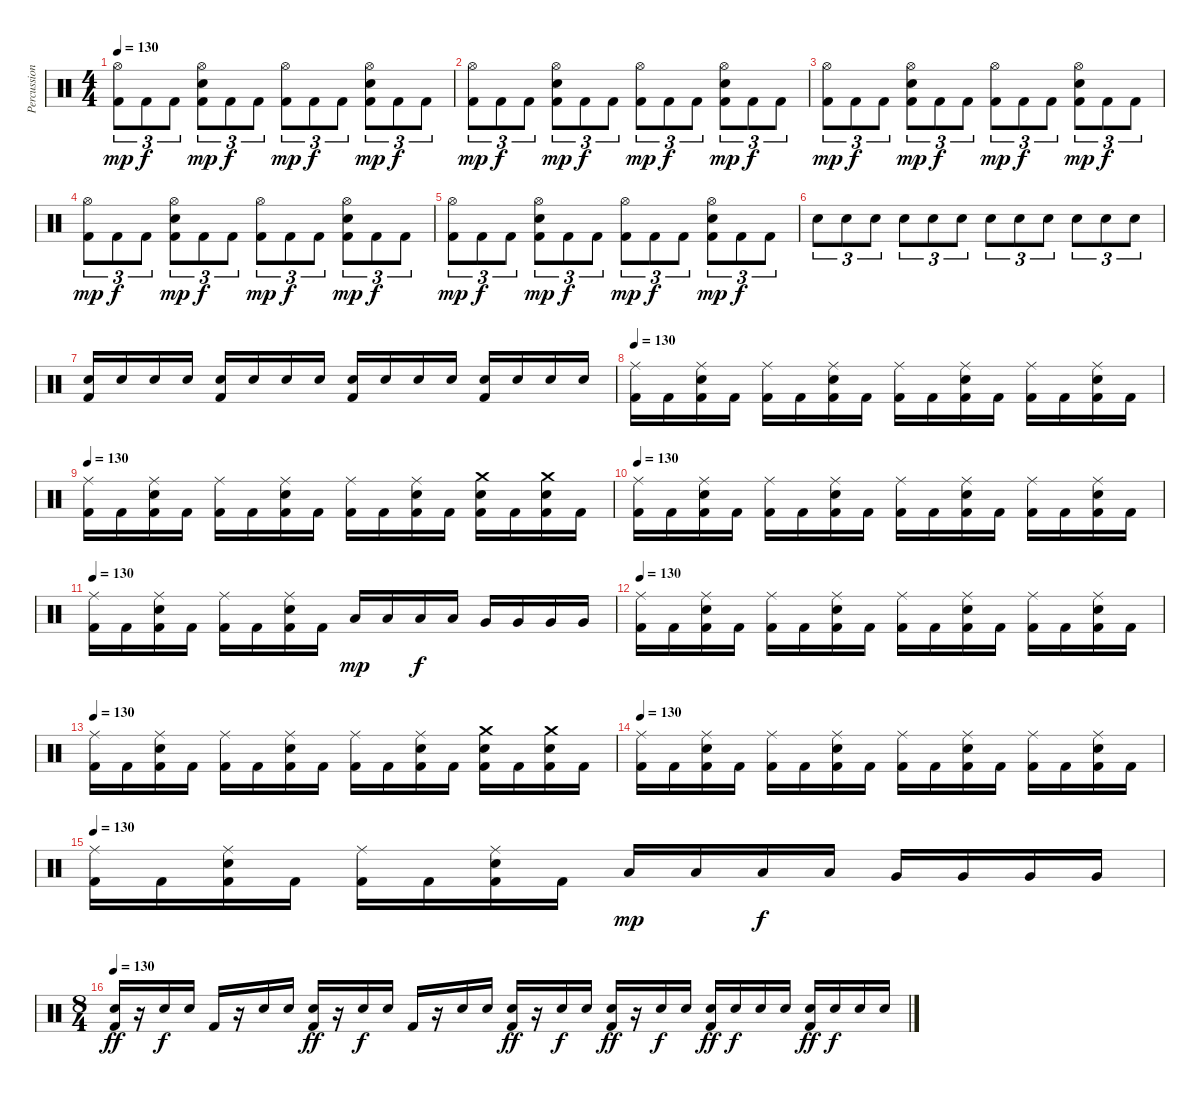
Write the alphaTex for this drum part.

\track ("Percussion" "Percussion") {instrument percussion}
\staff {score}
\articulation defaults
\ts (4 4)
\tempo 130
\clef neutral
\ks c
("Hi-Hat (open)" "Kick (hit) 2").8{tu (3 2) dy mp} "Kick (hit) 2".8{tu (3 2) dy f} "Kick (hit) 2".8{tu (3 2)} ("Hi-Hat (open)" "Snare (hit) 2" "Kick (hit) 2").8{tu (3 2) dy mp} "Kick (hit) 2".8{tu (3 2) dy f} "Kick (hit) 2".8{tu (3 2)} ("Hi-Hat (open)" "Kick (hit) 2").8{tu (3 2) dy mp} "Kick (hit) 2".8{tu (3 2) dy f} "Kick (hit) 2".8{tu (3 2)} ("Hi-Hat (open)" "Snare (hit) 2" "Kick (hit) 2").8{tu (3 2) dy mp} "Kick (hit) 2".8{tu (3 2) dy f} "Kick (hit) 2".8{tu (3 2)} |
("Hi-Hat (open)" "Kick (hit) 2").8{tu (3 2) dy mp} "Kick (hit) 2".8{tu (3 2) dy f} "Kick (hit) 2".8{tu (3 2)} ("Hi-Hat (open)" "Snare (hit) 2" "Kick (hit) 2").8{tu (3 2) dy mp} "Kick (hit) 2".8{tu (3 2) dy f} "Kick (hit) 2".8{tu (3 2)} ("Hi-Hat (open)" "Kick (hit) 2").8{tu (3 2) dy mp} "Kick (hit) 2".8{tu (3 2) dy f} "Kick (hit) 2".8{tu (3 2)} ("Hi-Hat (open)" "Snare (hit) 2" "Kick (hit) 2").8{tu (3 2) dy mp} "Kick (hit) 2".8{tu (3 2) dy f} "Kick (hit) 2".8{tu (3 2)} |
("Hi-Hat (open)" "Kick (hit) 2").8{tu (3 2) dy mp} "Kick (hit) 2".8{tu (3 2) dy f} "Kick (hit) 2".8{tu (3 2)} ("Hi-Hat (open)" "Snare (hit) 2" "Kick (hit) 2").8{tu (3 2) dy mp} "Kick (hit) 2".8{tu (3 2) dy f} "Kick (hit) 2".8{tu (3 2)} ("Hi-Hat (open)" "Kick (hit) 2").8{tu (3 2) dy mp} "Kick (hit) 2".8{tu (3 2) dy f} "Kick (hit) 2".8{tu (3 2)} ("Hi-Hat (open)" "Snare (hit) 2" "Kick (hit) 2").8{tu (3 2) dy mp} "Kick (hit) 2".8{tu (3 2) dy f} "Kick (hit) 2".8{tu (3 2)} |
("Hi-Hat (open)" "Kick (hit) 2").8{tu (3 2) dy mp} "Kick (hit) 2".8{tu (3 2) dy f} "Kick (hit) 2".8{tu (3 2)} ("Hi-Hat (open)" "Snare (hit) 2" "Kick (hit) 2").8{tu (3 2) dy mp} "Kick (hit) 2".8{tu (3 2) dy f} "Kick (hit) 2".8{tu (3 2)} ("Hi-Hat (open)" "Kick (hit) 2").8{tu (3 2) dy mp} "Kick (hit) 2".8{tu (3 2) dy f} "Kick (hit) 2".8{tu (3 2)} ("Hi-Hat (open)" "Snare (hit) 2" "Kick (hit) 2").8{tu (3 2) dy mp} "Kick (hit) 2".8{tu (3 2) dy f} "Kick (hit) 2".8{tu (3 2)} |
("Hi-Hat (open)" "Kick (hit) 2").8{tu (3 2) dy mp} "Kick (hit) 2".8{tu (3 2) dy f} "Kick (hit) 2".8{tu (3 2)} ("Hi-Hat (open)" "Snare (hit) 2" "Kick (hit) 2").8{tu (3 2) dy mp} "Kick (hit) 2".8{tu (3 2) dy f} "Kick (hit) 2".8{tu (3 2)} ("Hi-Hat (open)" "Kick (hit) 2").8{tu (3 2) dy mp} "Kick (hit) 2".8{tu (3 2) dy f} "Kick (hit) 2".8{tu (3 2)} ("Hi-Hat (open)" "Snare (hit) 2" "Kick (hit) 2").8{tu (3 2) dy mp} "Kick (hit) 2".8{tu (3 2) dy f} "Kick (hit) 2".8{tu (3 2)} |
"Snare (hit) 2".8{tu (3 2)} "Snare (hit) 2".8{tu (3 2)} "Snare (hit) 2".8{tu (3 2)} "Snare (hit) 2".8{tu (3 2)} "Snare (hit) 2".8{tu (3 2)} "Snare (hit) 2".8{tu (3 2)} "Snare (hit) 2".8{tu (3 2)} "Snare (hit) 2".8{tu (3 2)} "Snare (hit) 2".8{tu (3 2)} "Snare (hit) 2".8{tu (3 2)} "Snare (hit) 2".8{tu (3 2)} "Snare (hit) 2".8{tu (3 2)} |
("Snare (hit) 2" "Kick (hit) 2").16 "Snare (hit) 2".16 "Snare (hit) 2".16 "Snare (hit) 2".16 ("Snare (hit) 2" "Kick (hit) 2").16 "Snare (hit) 2".16 "Snare (hit) 2".16 "Snare (hit) 2".16 ("Snare (hit) 2" "Kick (hit) 2").16 "Snare (hit) 2".16 "Snare (hit) 2".16 "Snare (hit) 2".16 ("Snare (hit) 2" "Kick (hit) 2").16 "Snare (hit) 2".16 "Snare (hit) 2".16 "Snare (hit) 2".16 |
\tempo 130
("Ride (middle)" "Kick (hit) 2").16 "Kick (hit) 2".16 ("Ride (middle)" "Snare (hit) 2" "Kick (hit) 2").16 "Kick (hit) 2".16 ("Ride (middle)" "Kick (hit) 2").16 "Kick (hit) 2".16 ("Ride (middle)" "Snare (hit) 2" "Kick (hit) 2").16 "Kick (hit) 2".16 ("Ride (middle)" "Kick (hit) 2").16 "Kick (hit) 2".16 ("Ride (middle)" "Snare (hit) 2" "Kick (hit) 2").16 "Kick (hit) 2".16 ("Ride (middle)" "Kick (hit) 2").16 "Kick (hit) 2".16 ("Ride (middle)" "Snare (hit) 2" "Kick (hit) 2").16 "Kick (hit) 2".16 |
\tempo 130
("Ride (middle)" "Kick (hit) 2").16 "Kick (hit) 2".16 ("Ride (middle)" "Snare (hit) 2" "Kick (hit) 2").16 "Kick (hit) 2".16 ("Ride (middle)" "Kick (hit) 2").16 "Kick (hit) 2".16 ("Ride (middle)" "Snare (hit) 2" "Kick (hit) 2").16 "Kick (hit) 2".16 ("Ride (middle)" "Kick (hit) 2").16 "Kick (hit) 2".16 ("Ride (middle)" "Snare (hit) 2" "Kick (hit) 2").16 "Kick (hit) 2".16 ("Crash medium (hit)" "Snare (hit) 2" "Kick (hit) 2").16 "Kick (hit) 2".16 ("Crash medium (hit)" "Snare (hit) 2" "Kick (hit) 2").16 "Kick (hit) 2".16 |
\tempo 130
("Ride (middle)" "Kick (hit) 2").16 "Kick (hit) 2".16 ("Ride (middle)" "Snare (hit) 2" "Kick (hit) 2").16 "Kick (hit) 2".16 ("Ride (middle)" "Kick (hit) 2").16 "Kick (hit) 2".16 ("Ride (middle)" "Snare (hit) 2" "Kick (hit) 2").16 "Kick (hit) 2".16 ("Ride (middle)" "Kick (hit) 2").16 "Kick (hit) 2".16 ("Ride (middle)" "Snare (hit) 2" "Kick (hit) 2").16 "Kick (hit) 2".16 ("Ride (middle)" "Kick (hit) 2").16 "Kick (hit) 2".16 ("Ride (middle)" "Snare (hit) 2" "Kick (hit) 2").16 "Kick (hit) 2".16 |
\tempo 130
("Ride (middle)" "Kick (hit) 2").16 "Kick (hit) 2".16 ("Ride (middle)" "Snare (hit) 2" "Kick (hit) 2").16 "Kick (hit) 2".16 ("Ride (middle)" "Kick (hit) 2").16 "Kick (hit) 2".16 ("Ride (middle)" "Snare (hit) 2" "Kick (hit) 2").16 "Kick (hit) 2".16 "Low Tom (hit)".16{dy mp} "Low Tom (hit)".16 "Low Tom (hit)".16{dy f} "Low Tom (hit)".16 "Very Low Tom (hit)".16 "Very Low Tom (hit)".16 "Very Low Tom (hit)".16 "Very Low Tom (hit)".16 |
\tempo 130
("Ride (middle)" "Kick (hit) 2").16 "Kick (hit) 2".16 ("Ride (middle)" "Snare (hit) 2" "Kick (hit) 2").16 "Kick (hit) 2".16 ("Ride (middle)" "Kick (hit) 2").16 "Kick (hit) 2".16 ("Ride (middle)" "Snare (hit) 2" "Kick (hit) 2").16 "Kick (hit) 2".16 ("Ride (middle)" "Kick (hit) 2").16 "Kick (hit) 2".16 ("Ride (middle)" "Snare (hit) 2" "Kick (hit) 2").16 "Kick (hit) 2".16 ("Ride (middle)" "Kick (hit) 2").16 "Kick (hit) 2".16 ("Ride (middle)" "Snare (hit) 2" "Kick (hit) 2").16 "Kick (hit) 2".16 |
\tempo 130
("Ride (middle)" "Kick (hit) 2").16 "Kick (hit) 2".16 ("Ride (middle)" "Snare (hit) 2" "Kick (hit) 2").16 "Kick (hit) 2".16 ("Ride (middle)" "Kick (hit) 2").16 "Kick (hit) 2".16 ("Ride (middle)" "Snare (hit) 2" "Kick (hit) 2").16 "Kick (hit) 2".16 ("Ride (middle)" "Kick (hit) 2").16 "Kick (hit) 2".16 ("Ride (middle)" "Snare (hit) 2" "Kick (hit) 2").16 "Kick (hit) 2".16 ("Crash medium (hit)" "Snare (hit) 2" "Kick (hit) 2").16 "Kick (hit) 2".16 ("Crash medium (hit)" "Snare (hit) 2" "Kick (hit) 2").16 "Kick (hit) 2".16 |
\tempo 130
("Ride (middle)" "Kick (hit) 2").16 "Kick (hit) 2".16 ("Ride (middle)" "Snare (hit) 2" "Kick (hit) 2").16 "Kick (hit) 2".16 ("Ride (middle)" "Kick (hit) 2").16 "Kick (hit) 2".16 ("Ride (middle)" "Snare (hit) 2" "Kick (hit) 2").16 "Kick (hit) 2".16 ("Ride (middle)" "Kick (hit) 2").16 "Kick (hit) 2".16 ("Ride (middle)" "Snare (hit) 2" "Kick (hit) 2").16 "Kick (hit) 2".16 ("Ride (middle)" "Kick (hit) 2").16 "Kick (hit) 2".16 ("Ride (middle)" "Snare (hit) 2" "Kick (hit) 2").16 "Kick (hit) 2".16 |
\tempo 130
("Ride (middle)" "Kick (hit) 2").16 "Kick (hit) 2".16 ("Ride (middle)" "Snare (hit) 2" "Kick (hit) 2").16 "Kick (hit) 2".16 ("Ride (middle)" "Kick (hit) 2").16 "Kick (hit) 2".16 ("Ride (middle)" "Snare (hit) 2" "Kick (hit) 2").16 "Kick (hit) 2".16 "Low Tom (hit)".16{dy mp} "Low Tom (hit)".16 "Low Tom (hit)".16{dy f} "Low Tom (hit)".16 "Very Low Tom (hit)".16 "Very Low Tom (hit)".16 "Very Low Tom (hit)".16 "Very Low Tom (hit)".16 |
\ts (8 4)
\tempo 130
("Snare (hit) 2" "Kick (hit) 2").16{dy ff} r.16 "Snare (hit) 2".16{dy f} "Snare (hit) 2".16 "Kick (hit) 2".16 r.16 "Snare (hit) 2".16 "Snare (hit) 2".16 ("Snare (hit) 2" "Kick (hit) 2").16{dy ff} r.16 "Snare (hit) 2".16{dy f} "Snare (hit) 2".16 "Kick (hit) 2".16 r.16 "Snare (hit) 2".16 "Snare (hit) 2".16 ("Snare (hit) 2" "Kick (hit) 2").16{dy ff} r.16 "Snare (hit) 2".16{dy f} "Snare (hit) 2".16 ("Snare (hit) 2" "Kick (hit) 2").16{dy ff} r.16 "Snare (hit) 2".16{dy f} "Snare (hit) 2".16 ("Snare (hit) 2" "Kick (hit) 2").16{dy ff} "Snare (hit) 2".16{dy f} "Snare (hit) 2".16 "Snare (hit) 2".16 ("Snare (hit) 2" "Kick (hit) 2").16{dy ff} "Snare (hit) 2".16{dy f} "Snare (hit) 2".16 "Snare (hit) 2".16
